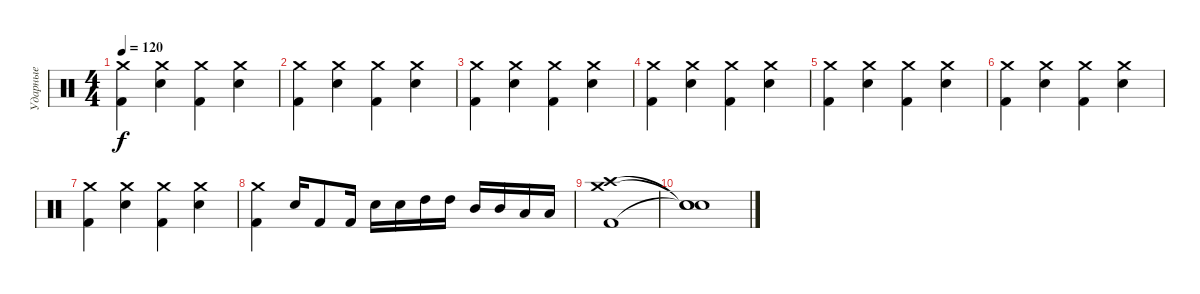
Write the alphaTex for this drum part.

\track ("Ударные" "Ударные") {instrument percussion}
\staff {score}
\articulation defaults
\ts (4 4)
\tempo 120
\clef neutral
\ks c
("Crash medium (hit)" "Kick (hit) 2").4{dy f} ("Crash medium (hit)" "Snare (hit) 2").4 ("Crash medium (hit)" "Kick (hit) 2").4 ("Crash medium (hit)" "Snare (hit) 2").4 |
("Crash medium (hit)" "Kick (hit) 2").4 ("Crash medium (hit)" "Snare (hit) 2").4 ("Crash medium (hit)" "Kick (hit) 2").4 ("Crash medium (hit)" "Snare (hit) 2").4 |
("Crash medium (hit)" "Kick (hit) 2").4 ("Crash medium (hit)" "Snare (hit) 2").4 ("Crash medium (hit)" "Kick (hit) 2").4 ("Crash medium (hit)" "Snare (hit) 2").4 |
("Crash medium (hit)" "Kick (hit) 2").4 ("Crash medium (hit)" "Snare (hit) 2").4 ("Crash medium (hit)" "Kick (hit) 2").4 ("Crash medium (hit)" "Snare (hit) 2").4 |
("Crash medium (hit)" "Kick (hit) 2").4 ("Crash medium (hit)" "Snare (hit) 2").4 ("Crash medium (hit)" "Kick (hit) 2").4 ("Crash medium (hit)" "Snare (hit) 2").4 |
("Crash medium (hit)" "Kick (hit) 2").4 ("Crash medium (hit)" "Snare (hit) 2").4 ("Crash medium (hit)" "Kick (hit) 2").4 ("Crash medium (hit)" "Snare (hit) 2").4 |
("Crash medium (hit)" "Kick (hit) 2").4 ("Crash medium (hit)" "Snare (hit) 2").4 ("Crash medium (hit)" "Kick (hit) 2").4 ("Crash medium (hit)" "Snare (hit) 2").4 |
("Crash medium (hit)" "Kick (hit) 2").4 "Snare (hit) 2".16 "Kick (hit) 2".8 "Kick (hit) 2".16 "Snare (hit) 2".16 "Snare (hit) 2".16 "High Tom (hit)".16 "High Tom (hit)".16 "Mid Tom (hit)".16 "Mid Tom (hit)".16 "Low Tom (hit)".16 "Low Tom (hit)".16 |
("Crash medium (hit)" "Crash high (hit)" "Kick (hit) 2").1 |
("Snare (hit)"{t} "Snare (hit)"{t} "Snare (hit)"{t}).1
